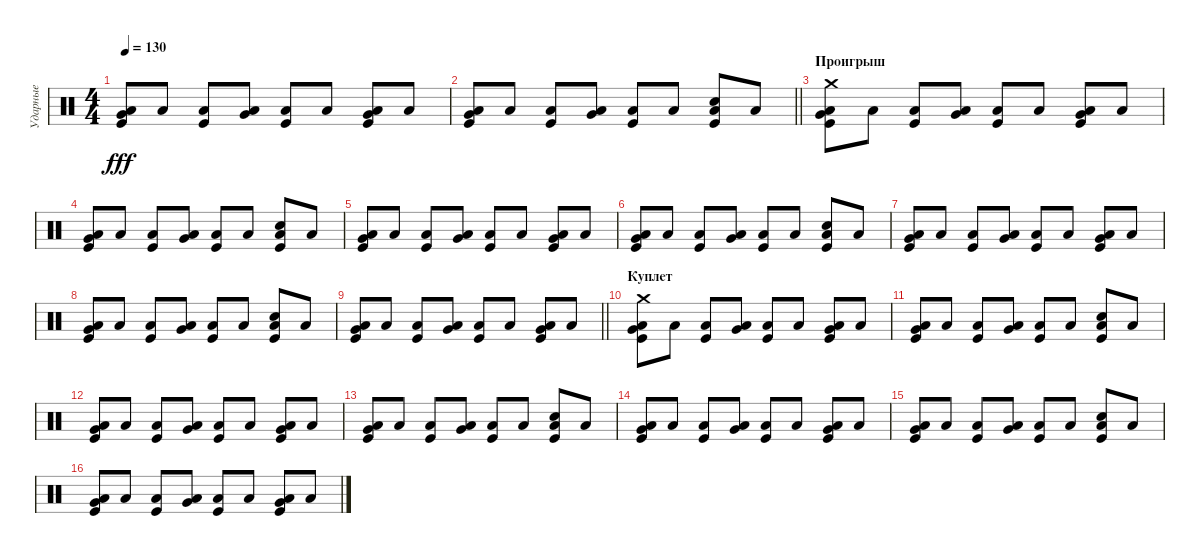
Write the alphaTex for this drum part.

\track ("Ударные" "Ударные") {instrument percussion}
\staff {score}
\articulation defaults
\ts (4 4)
\tempo 130
\clef neutral
\ks c
("Kick (hit)" "Low Tom (hit)" "Very Low Tom (hit)").8{dy fff} "Low Tom (hit)".8 ("Kick (hit)" "Low Tom (hit)").8 ("Low Tom (hit)" "Very Low Tom (hit)").8 ("Kick (hit)" "Low Tom (hit)").8 "Low Tom (hit)".8 ("Kick (hit)" "Low Tom (hit)" "Very Low Tom (hit)").8 "Low Tom (hit)".8 |
\barLineRight lightlight
("Kick (hit)" "Low Tom (hit)" "Very Low Tom (hit)").8 "Low Tom (hit)".8 ("Kick (hit)" "Low Tom (hit)").8 ("Low Tom (hit)" "Very Low Tom (hit)").8 ("Kick (hit)" "Low Tom (hit)").8 "Low Tom (hit)".8 ("Kick (hit)" "Low Tom (hit)" "Electric Snare (hit)").8 "Low Tom (hit)".8 |
\section ("" "Проигрыш")
("Kick (hit)" "Crash medium (hit)" "Low Tom (hit)" "Very Low Tom (hit)").8 "Low Tom (hit)".8 ("Kick (hit)" "Low Tom (hit)").8 ("Low Tom (hit)" "Very Low Tom (hit)").8 ("Kick (hit)" "Low Tom (hit)").8 "Low Tom (hit)".8 ("Kick (hit)" "Low Tom (hit)" "Very Low Tom (hit)").8 "Low Tom (hit)".8 |
("Kick (hit)" "Low Tom (hit)" "Very Low Tom (hit)").8 "Low Tom (hit)".8 ("Kick (hit)" "Low Tom (hit)").8 ("Low Tom (hit)" "Very Low Tom (hit)").8 ("Kick (hit)" "Low Tom (hit)").8 "Low Tom (hit)".8 ("Kick (hit)" "Low Tom (hit)" "Electric Snare (hit)").8 "Low Tom (hit)".8 |
("Kick (hit)" "Low Tom (hit)" "Very Low Tom (hit)").8 "Low Tom (hit)".8 ("Kick (hit)" "Low Tom (hit)").8 ("Low Tom (hit)" "Very Low Tom (hit)").8 ("Kick (hit)" "Low Tom (hit)").8 "Low Tom (hit)".8 ("Kick (hit)" "Low Tom (hit)" "Very Low Tom (hit)").8 "Low Tom (hit)".8 |
("Kick (hit)" "Low Tom (hit)" "Very Low Tom (hit)").8 "Low Tom (hit)".8 ("Kick (hit)" "Low Tom (hit)").8 ("Low Tom (hit)" "Very Low Tom (hit)").8 ("Kick (hit)" "Low Tom (hit)").8 "Low Tom (hit)".8 ("Kick (hit)" "Low Tom (hit)" "Electric Snare (hit)").8 "Low Tom (hit)".8 |
("Kick (hit)" "Low Tom (hit)" "Very Low Tom (hit)").8 "Low Tom (hit)".8 ("Kick (hit)" "Low Tom (hit)").8 ("Low Tom (hit)" "Very Low Tom (hit)").8 ("Kick (hit)" "Low Tom (hit)").8 "Low Tom (hit)".8 ("Kick (hit)" "Low Tom (hit)" "Very Low Tom (hit)").8 "Low Tom (hit)".8 |
("Kick (hit)" "Low Tom (hit)" "Very Low Tom (hit)").8 "Low Tom (hit)".8 ("Kick (hit)" "Low Tom (hit)").8 ("Low Tom (hit)" "Very Low Tom (hit)").8 ("Kick (hit)" "Low Tom (hit)").8 "Low Tom (hit)".8 ("Kick (hit)" "Low Tom (hit)" "Electric Snare (hit)").8 "Low Tom (hit)".8 |
\barLineRight lightlight
("Kick (hit)" "Low Tom (hit)" "Very Low Tom (hit)").8 "Low Tom (hit)".8 ("Kick (hit)" "Low Tom (hit)").8 ("Low Tom (hit)" "Very Low Tom (hit)").8 ("Kick (hit)" "Low Tom (hit)").8 "Low Tom (hit)".8 ("Kick (hit)" "Low Tom (hit)" "Very Low Tom (hit)").8 "Low Tom (hit)".8 |
\section ("" "Куплет")
("Kick (hit)" "Low Tom (hit)" "Very Low Tom (hit)" "Crash medium (hit)").8 "Low Tom (hit)".8 ("Kick (hit)" "Low Tom (hit)").8 ("Low Tom (hit)" "Very Low Tom (hit)").8 ("Kick (hit)" "Low Tom (hit)").8 "Low Tom (hit)".8 ("Kick (hit)" "Low Tom (hit)" "Very Low Tom (hit)").8 "Low Tom (hit)".8 |
("Kick (hit)" "Low Tom (hit)" "Very Low Tom (hit)").8 "Low Tom (hit)".8 ("Kick (hit)" "Low Tom (hit)").8 ("Low Tom (hit)" "Very Low Tom (hit)").8 ("Kick (hit)" "Low Tom (hit)").8 "Low Tom (hit)".8 ("Kick (hit)" "Low Tom (hit)" "Electric Snare (hit)").8 "Low Tom (hit)".8 |
("Kick (hit)" "Low Tom (hit)" "Very Low Tom (hit)").8 "Low Tom (hit)".8 ("Kick (hit)" "Low Tom (hit)").8 ("Low Tom (hit)" "Very Low Tom (hit)").8 ("Kick (hit)" "Low Tom (hit)").8 "Low Tom (hit)".8 ("Kick (hit)" "Low Tom (hit)" "Very Low Tom (hit)").8 "Low Tom (hit)".8 |
("Kick (hit)" "Low Tom (hit)" "Very Low Tom (hit)").8 "Low Tom (hit)".8 ("Kick (hit)" "Low Tom (hit)").8 ("Low Tom (hit)" "Very Low Tom (hit)").8 ("Kick (hit)" "Low Tom (hit)").8 "Low Tom (hit)".8 ("Kick (hit)" "Low Tom (hit)" "Electric Snare (hit)").8 "Low Tom (hit)".8 |
("Kick (hit)" "Low Tom (hit)" "Very Low Tom (hit)").8 "Low Tom (hit)".8 ("Kick (hit)" "Low Tom (hit)").8 ("Low Tom (hit)" "Very Low Tom (hit)").8 ("Kick (hit)" "Low Tom (hit)").8 "Low Tom (hit)".8 ("Kick (hit)" "Low Tom (hit)" "Very Low Tom (hit)").8 "Low Tom (hit)".8 |
("Kick (hit)" "Low Tom (hit)" "Very Low Tom (hit)").8 "Low Tom (hit)".8 ("Kick (hit)" "Low Tom (hit)").8 ("Low Tom (hit)" "Very Low Tom (hit)").8 ("Kick (hit)" "Low Tom (hit)").8 "Low Tom (hit)".8 ("Kick (hit)" "Low Tom (hit)" "Electric Snare (hit)").8 "Low Tom (hit)".8 |
("Kick (hit)" "Low Tom (hit)" "Very Low Tom (hit)").8 "Low Tom (hit)".8 ("Kick (hit)" "Low Tom (hit)").8 ("Low Tom (hit)" "Very Low Tom (hit)").8 ("Kick (hit)" "Low Tom (hit)").8 "Low Tom (hit)".8 ("Kick (hit)" "Low Tom (hit)" "Very Low Tom (hit)").8 "Low Tom (hit)".8
